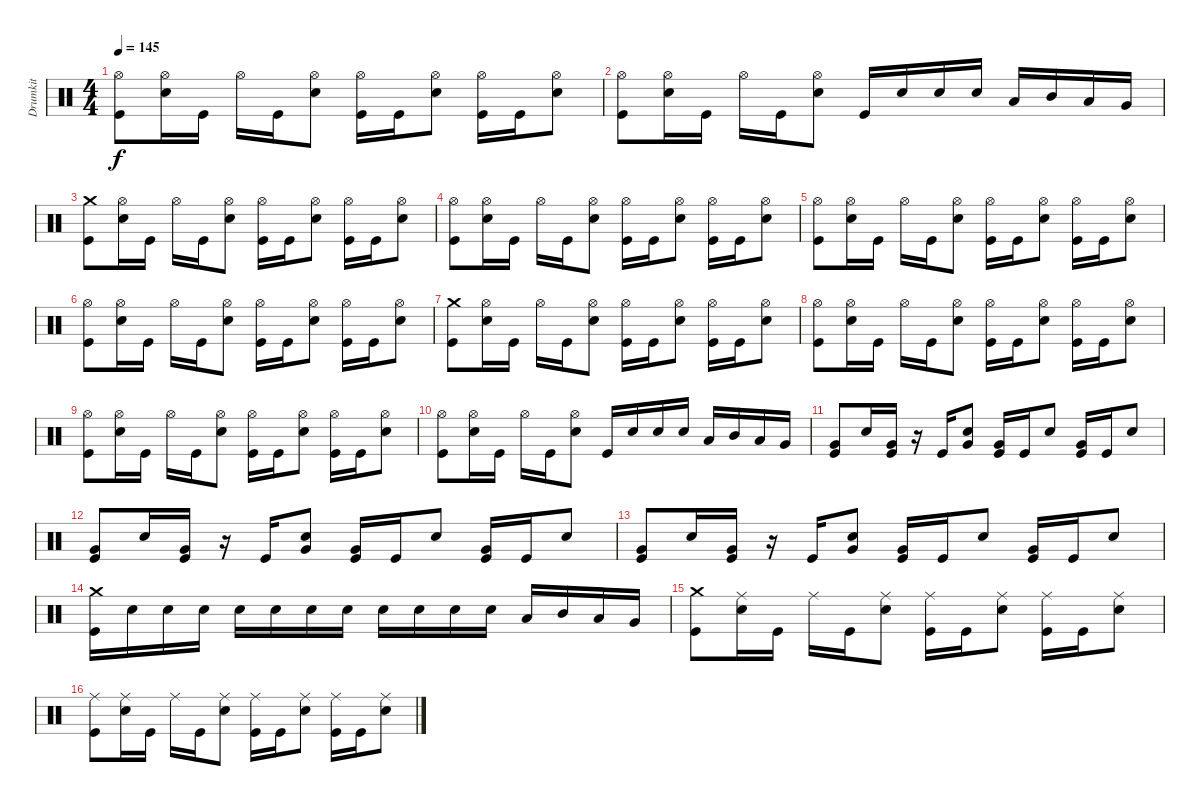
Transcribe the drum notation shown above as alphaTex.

\track ("Drumkit" "Drumkit") {instrument percussion}
\staff {score}
\articulation defaults
\ts (4 4)
\tempo 145
\clef neutral
\ks c
("Kick (hit)" "Hi-Hat (open)").8{dy f} ("Snare (hit) 2" "Hi-Hat (open)").16 "Kick (hit)".16 "Hi-Hat (open)".16 "Kick (hit)".16 ("Snare (hit) 2" "Hi-Hat (open)").8 ("Hi-Hat (open)" "Kick (hit)").16 "Kick (hit)".16 ("Snare (hit) 2" "Hi-Hat (open)").8 ("Hi-Hat (open)" "Kick (hit)").16 "Kick (hit)".16 ("Snare (hit) 2" "Hi-Hat (open)").8 |
("Kick (hit)" "Hi-Hat (open)").8 ("Snare (hit) 2" "Hi-Hat (open)").16 "Kick (hit)".16 "Hi-Hat (open)".16 "Kick (hit)".16 ("Snare (hit) 2" "Hi-Hat (open)").8 "Kick (hit)".16 "Snare (hit) 2".16 "Snare (hit) 2".16 "Snare (hit) 2".16 "Low Tom (hit)".16 "Mid Tom (hit)".16 "Low Tom (hit)".16 "Very Low Tom (hit)".16 |
("Kick (hit)" "Crash medium (hit)").8 ("Snare (hit) 2" "Hi-Hat (open)").16 "Kick (hit)".16 "Hi-Hat (open)".16 "Kick (hit)".16 ("Snare (hit) 2" "Hi-Hat (open)").8 ("Hi-Hat (open)" "Kick (hit)").16 "Kick (hit)".16 ("Snare (hit) 2" "Hi-Hat (open)").8 ("Hi-Hat (open)" "Kick (hit)").16 "Kick (hit)".16 ("Snare (hit) 2" "Hi-Hat (open)").8 |
("Kick (hit)" "Hi-Hat (open)").8 ("Snare (hit) 2" "Hi-Hat (open)").16 "Kick (hit)".16 "Hi-Hat (open)".16 "Kick (hit)".16 ("Snare (hit) 2" "Hi-Hat (open)").8 ("Hi-Hat (open)" "Kick (hit)").16 "Kick (hit)".16 ("Snare (hit) 2" "Hi-Hat (open)").8 ("Hi-Hat (open)" "Kick (hit)").16 "Kick (hit)".16 ("Snare (hit) 2" "Hi-Hat (open)").8 |
("Kick (hit)" "Hi-Hat (open)").8 ("Snare (hit) 2" "Hi-Hat (open)").16 "Kick (hit)".16 "Hi-Hat (open)".16 "Kick (hit)".16 ("Snare (hit) 2" "Hi-Hat (open)").8 ("Hi-Hat (open)" "Kick (hit)").16 "Kick (hit)".16 ("Snare (hit) 2" "Hi-Hat (open)").8 ("Hi-Hat (open)" "Kick (hit)").16 "Kick (hit)".16 ("Snare (hit) 2" "Hi-Hat (open)").8 |
("Kick (hit)" "Hi-Hat (open)").8 ("Snare (hit) 2" "Hi-Hat (open)").16 "Kick (hit)".16 "Hi-Hat (open)".16 "Kick (hit)".16 ("Snare (hit) 2" "Hi-Hat (open)").8 ("Hi-Hat (open)" "Kick (hit)").16 "Kick (hit)".16 ("Snare (hit) 2" "Hi-Hat (open)").8 ("Hi-Hat (open)" "Kick (hit)").16 "Kick (hit)".16 ("Snare (hit) 2" "Hi-Hat (open)").8 |
("Kick (hit)" "Crash medium (hit)").8 ("Snare (hit) 2" "Hi-Hat (open)").16 "Kick (hit)".16 "Hi-Hat (open)".16 "Kick (hit)".16 ("Snare (hit) 2" "Hi-Hat (open)").8 ("Hi-Hat (open)" "Kick (hit)").16 "Kick (hit)".16 ("Snare (hit) 2" "Hi-Hat (open)").8 ("Hi-Hat (open)" "Kick (hit)").16 "Kick (hit)".16 ("Snare (hit) 2" "Hi-Hat (open)").8 |
("Kick (hit)" "Hi-Hat (open)").8 ("Snare (hit) 2" "Hi-Hat (open)").16 "Kick (hit)".16 "Hi-Hat (open)".16 "Kick (hit)".16 ("Snare (hit) 2" "Hi-Hat (open)").8 ("Hi-Hat (open)" "Kick (hit)").16 "Kick (hit)".16 ("Snare (hit) 2" "Hi-Hat (open)").8 ("Hi-Hat (open)" "Kick (hit)").16 "Kick (hit)".16 ("Snare (hit) 2" "Hi-Hat (open)").8 |
("Kick (hit)" "Hi-Hat (open)").8 ("Snare (hit) 2" "Hi-Hat (open)").16 "Kick (hit)".16 "Hi-Hat (open)".16 "Kick (hit)".16 ("Snare (hit) 2" "Hi-Hat (open)").8 ("Hi-Hat (open)" "Kick (hit)").16 "Kick (hit)".16 ("Snare (hit) 2" "Hi-Hat (open)").8 ("Hi-Hat (open)" "Kick (hit)").16 "Kick (hit)".16 ("Snare (hit) 2" "Hi-Hat (open)").8 |
("Kick (hit)" "Hi-Hat (open)").8 ("Snare (hit) 2" "Hi-Hat (open)").16 "Kick (hit)".16 "Hi-Hat (open)".16 "Kick (hit)".16 ("Snare (hit) 2" "Hi-Hat (open)").8 "Kick (hit)".16 "Snare (hit) 2".16 "Snare (hit) 2".16 "Snare (hit) 2".16 "Low Tom (hit)".16 "Mid Tom (hit)".16 "Low Tom (hit)".16 "Very Low Tom (hit)".16 |
("Kick (hit)" "Very Low Tom (hit)").8 "Snare (hit) 2".16 ("Kick (hit)" "Very Low Tom (hit)").16 r.16 "Kick (hit)".16 ("Snare (hit) 2" "Very Low Tom (hit)").8 ("Kick (hit)" "Very Low Tom (hit)").16 "Kick (hit)".16 "Snare (hit) 2".8 ("Kick (hit)" "Very Low Tom (hit)").16 "Kick (hit)".16 "Snare (hit) 2".8 |
("Kick (hit)" "Very Low Tom (hit)").8 "Snare (hit) 2".16 ("Kick (hit)" "Very Low Tom (hit)").16 r.16 "Kick (hit)".16 ("Snare (hit) 2" "Very Low Tom (hit)").8 ("Kick (hit)" "Very Low Tom (hit)").16 "Kick (hit)".16 "Snare (hit) 2".8 ("Kick (hit)" "Very Low Tom (hit)").16 "Kick (hit)".16 "Snare (hit) 2".8 |
("Kick (hit)" "Very Low Tom (hit)").8 "Snare (hit) 2".16 ("Kick (hit)" "Very Low Tom (hit)").16 r.16 "Kick (hit)".16 ("Snare (hit) 2" "Very Low Tom (hit)").8 ("Kick (hit)" "Very Low Tom (hit)").16 "Kick (hit)".16 "Snare (hit) 2".8 ("Kick (hit)" "Very Low Tom (hit)").16 "Kick (hit)".16 "Snare (hit) 2".8 |
("Kick (hit)" "Crash medium (hit)").16 "Snare (hit) 2".16 "Snare (hit) 2".16 "Snare (hit) 2".16 "Snare (hit) 2".16 "Snare (hit) 2".16 "Snare (hit) 2".16 "Snare (hit) 2".16 "Snare (hit) 2".16 "Snare (hit) 2".16 "Snare (hit) 2".16 "Snare (hit) 2".16 "Low Tom (hit)".16 "Mid Tom (hit)".16 "Low Tom (hit)".16 "Very Low Tom (hit)".16 |
("Kick (hit)" "Crash medium (hit)").8 ("Snare (hit) 2" "Ride (middle)").16 "Kick (hit)".16 "Ride (middle)".16 "Kick (hit)".16 ("Snare (hit) 2" "Ride (middle)").8 ("Kick (hit)" "Ride (middle)").16 "Kick (hit)".16 ("Snare (hit) 2" "Ride (middle)").8 ("Kick (hit)" "Ride (middle)").16 "Kick (hit)".16 ("Snare (hit) 2" "Ride (middle)").8 |
("Kick (hit)" "Ride (middle)").8 ("Snare (hit) 2" "Ride (middle)").16 "Kick (hit)".16 "Ride (middle)".16 "Kick (hit)".16 ("Snare (hit) 2" "Ride (middle)").8 ("Kick (hit)" "Ride (middle)").16 "Kick (hit)".16 ("Snare (hit) 2" "Ride (middle)").8 ("Kick (hit)" "Ride (middle)").16 "Kick (hit)".16 ("Snare (hit) 2" "Ride (middle)").8
